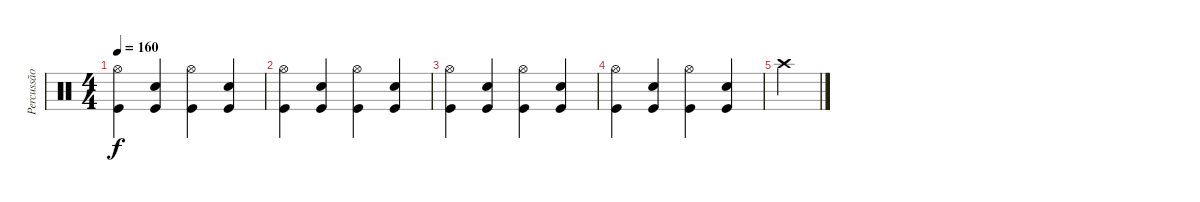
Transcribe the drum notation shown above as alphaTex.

\track ("Percussão" "Percussão") {instrument percussion}
\staff {score}
\articulation defaults
\ts (4 4)
\tempo 160
\clef neutral
\ks c
("Hi-Hat (open)" "Kick (hit)").4{dy f} ("Snare (hit) 2" "Kick (hit)").4 ("Hi-Hat (open)" "Kick (hit)").4 ("Snare (hit) 2" "Kick (hit)").4 |
("Hi-Hat (open)" "Kick (hit)").4 ("Snare (hit) 2" "Kick (hit)").4 ("Hi-Hat (open)" "Kick (hit)").4 ("Snare (hit) 2" "Kick (hit)").4 |
("Hi-Hat (open)" "Kick (hit)").4 ("Snare (hit) 2" "Kick (hit)").4 ("Hi-Hat (open)" "Kick (hit)").4 ("Snare (hit) 2" "Kick (hit)").4 |
("Hi-Hat (open)" "Kick (hit)").4 ("Snare (hit) 2" "Kick (hit)").4 ("Hi-Hat (open)" "Kick (hit)").4 ("Snare (hit) 2" "Kick (hit)").4 |
"Crash high (hit)".4
